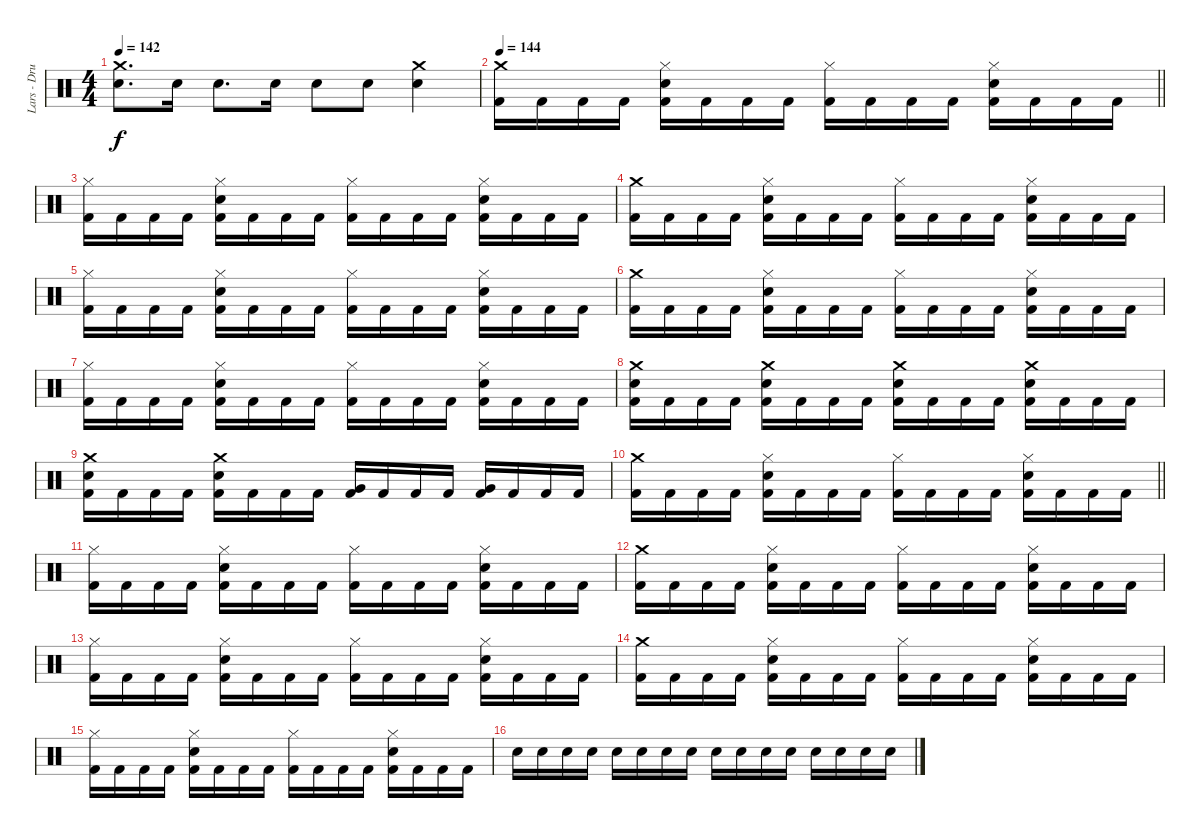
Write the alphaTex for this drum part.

\track ("Lars - Drums" "Lars - Dru") {instrument percussion}
\staff {score}
\articulation defaults
\ts (4 4)
\tempo 142
\clef neutral
\ks c
("Crash medium (hit)" "Snare (hit) 2").8{d dy f volume 15} "Snare (hit) 2".16 "Snare (hit) 2".8{d} "Snare (hit) 2".16 "Snare (hit) 2".8 "Snare (hit) 2".8 ("Crash medium (hit)" "Snare (hit) 2").4 |
\tempo 144
\barLineRight lightlight
("Crash medium (hit)" "Kick (hit) 2").16 "Kick (hit) 2".16 "Kick (hit) 2".16 "Kick (hit) 2".16 ("Hi-Hat (closed)" "Snare (hit) 2" "Kick (hit) 2").16 "Kick (hit) 2".16 "Kick (hit) 2".16 "Kick (hit) 2".16 ("Hi-Hat (closed)" "Kick (hit) 2").16 "Kick (hit) 2".16 "Kick (hit) 2".16 "Kick (hit) 2".16 ("Hi-Hat (closed)" "Snare (hit) 2" "Kick (hit) 2").16 "Kick (hit) 2".16 "Kick (hit) 2".16 "Kick (hit) 2".16 |
("Hi-Hat (closed)" "Kick (hit) 2").16 "Kick (hit) 2".16 "Kick (hit) 2".16 "Kick (hit) 2".16 ("Hi-Hat (closed)" "Snare (hit) 2" "Kick (hit) 2").16 "Kick (hit) 2".16 "Kick (hit) 2".16 "Kick (hit) 2".16 ("Hi-Hat (closed)" "Kick (hit) 2").16 "Kick (hit) 2".16 "Kick (hit) 2".16 "Kick (hit) 2".16 ("Hi-Hat (closed)" "Snare (hit) 2" "Kick (hit) 2").16 "Kick (hit) 2".16 "Kick (hit) 2".16 "Kick (hit) 2".16 |
("Crash medium (hit)" "Kick (hit) 2").16 "Kick (hit) 2".16 "Kick (hit) 2".16 "Kick (hit) 2".16 ("Hi-Hat (closed)" "Snare (hit) 2" "Kick (hit) 2").16 "Kick (hit) 2".16 "Kick (hit) 2".16 "Kick (hit) 2".16 ("Hi-Hat (closed)" "Kick (hit) 2").16 "Kick (hit) 2".16 "Kick (hit) 2".16 "Kick (hit) 2".16 ("Hi-Hat (closed)" "Snare (hit) 2" "Kick (hit) 2").16 "Kick (hit) 2".16 "Kick (hit) 2".16 "Kick (hit) 2".16 |
("Hi-Hat (closed)" "Kick (hit) 2").16 "Kick (hit) 2".16 "Kick (hit) 2".16 "Kick (hit) 2".16 ("Hi-Hat (closed)" "Snare (hit) 2" "Kick (hit) 2").16 "Kick (hit) 2".16 "Kick (hit) 2".16 "Kick (hit) 2".16 ("Hi-Hat (closed)" "Kick (hit) 2").16 "Kick (hit) 2".16 "Kick (hit) 2".16 "Kick (hit) 2".16 ("Hi-Hat (closed)" "Snare (hit) 2" "Kick (hit) 2").16 "Kick (hit) 2".16 "Kick (hit) 2".16 "Kick (hit) 2".16 |
("Crash medium (hit)" "Kick (hit) 2").16 "Kick (hit) 2".16 "Kick (hit) 2".16 "Kick (hit) 2".16 ("Hi-Hat (closed)" "Snare (hit) 2" "Kick (hit) 2").16 "Kick (hit) 2".16 "Kick (hit) 2".16 "Kick (hit) 2".16 ("Hi-Hat (closed)" "Kick (hit) 2").16 "Kick (hit) 2".16 "Kick (hit) 2".16 "Kick (hit) 2".16 ("Hi-Hat (closed)" "Snare (hit) 2" "Kick (hit) 2").16 "Kick (hit) 2".16 "Kick (hit) 2".16 "Kick (hit) 2".16 |
("Hi-Hat (closed)" "Kick (hit) 2").16 "Kick (hit) 2".16 "Kick (hit) 2".16 "Kick (hit) 2".16 ("Hi-Hat (closed)" "Snare (hit) 2" "Kick (hit) 2").16 "Kick (hit) 2".16 "Kick (hit) 2".16 "Kick (hit) 2".16 ("Hi-Hat (closed)" "Kick (hit) 2").16 "Kick (hit) 2".16 "Kick (hit) 2".16 "Kick (hit) 2".16 ("Hi-Hat (closed)" "Snare (hit) 2" "Kick (hit) 2").16 "Kick (hit) 2".16 "Kick (hit) 2".16 "Kick (hit) 2".16 |
("Crash medium (hit)" "Snare (hit) 2" "Kick (hit) 2").16 "Kick (hit) 2".16 "Kick (hit) 2".16 "Kick (hit) 2".16 ("Crash medium (hit)" "Snare (hit) 2" "Kick (hit) 2").16 "Kick (hit) 2".16 "Kick (hit) 2".16 "Kick (hit) 2".16 ("Crash medium (hit)" "Snare (hit) 2" "Kick (hit) 2").16 "Kick (hit) 2".16 "Kick (hit) 2".16 "Kick (hit) 2".16 ("Crash medium (hit)" "Snare (hit) 2" "Kick (hit) 2").16 "Kick (hit) 2".16 "Kick (hit) 2".16 "Kick (hit) 2".16 |
("Crash medium (hit)" "Snare (hit) 2" "Kick (hit) 2").16 "Kick (hit) 2".16 "Kick (hit) 2".16 "Kick (hit) 2".16 ("Crash medium (hit)" "Snare (hit) 2" "Kick (hit) 2").16 "Kick (hit) 2".16 "Kick (hit) 2".16 "Kick (hit) 2".16 ("Very Low Tom (hit)" "Kick (hit) 2").16 "Kick (hit) 2".16 "Kick (hit) 2".16 "Kick (hit) 2".16 ("Very Low Tom (hit)" "Kick (hit) 2").16 "Kick (hit) 2".16 "Kick (hit) 2".16 "Kick (hit) 2".16 |
\barLineRight lightlight
("Crash medium (hit)" "Kick (hit) 2").16 "Kick (hit) 2".16 "Kick (hit) 2".16 "Kick (hit) 2".16 ("Hi-Hat (closed)" "Snare (hit) 2" "Kick (hit) 2").16 "Kick (hit) 2".16 "Kick (hit) 2".16 "Kick (hit) 2".16 ("Hi-Hat (closed)" "Kick (hit) 2").16 "Kick (hit) 2".16 "Kick (hit) 2".16 "Kick (hit) 2".16 ("Hi-Hat (closed)" "Snare (hit) 2" "Kick (hit) 2").16 "Kick (hit) 2".16 "Kick (hit) 2".16 "Kick (hit) 2".16 |
("Hi-Hat (closed)" "Kick (hit) 2").16 "Kick (hit) 2".16 "Kick (hit) 2".16 "Kick (hit) 2".16 ("Hi-Hat (closed)" "Snare (hit) 2" "Kick (hit) 2").16 "Kick (hit) 2".16 "Kick (hit) 2".16 "Kick (hit) 2".16 ("Hi-Hat (closed)" "Kick (hit) 2").16 "Kick (hit) 2".16 "Kick (hit) 2".16 "Kick (hit) 2".16 ("Hi-Hat (closed)" "Snare (hit) 2" "Kick (hit) 2").16 "Kick (hit) 2".16 "Kick (hit) 2".16 "Kick (hit) 2".16 |
("Crash medium (hit)" "Kick (hit) 2").16 "Kick (hit) 2".16 "Kick (hit) 2".16 "Kick (hit) 2".16 ("Hi-Hat (closed)" "Snare (hit) 2" "Kick (hit) 2").16 "Kick (hit) 2".16 "Kick (hit) 2".16 "Kick (hit) 2".16 ("Hi-Hat (closed)" "Kick (hit) 2").16 "Kick (hit) 2".16 "Kick (hit) 2".16 "Kick (hit) 2".16 ("Hi-Hat (closed)" "Snare (hit) 2" "Kick (hit) 2").16 "Kick (hit) 2".16 "Kick (hit) 2".16 "Kick (hit) 2".16 |
("Hi-Hat (closed)" "Kick (hit) 2").16 "Kick (hit) 2".16 "Kick (hit) 2".16 "Kick (hit) 2".16 ("Hi-Hat (closed)" "Snare (hit) 2" "Kick (hit) 2").16 "Kick (hit) 2".16 "Kick (hit) 2".16 "Kick (hit) 2".16 ("Hi-Hat (closed)" "Kick (hit) 2").16 "Kick (hit) 2".16 "Kick (hit) 2".16 "Kick (hit) 2".16 ("Hi-Hat (closed)" "Snare (hit) 2" "Kick (hit) 2").16 "Kick (hit) 2".16 "Kick (hit) 2".16 "Kick (hit) 2".16 |
("Crash medium (hit)" "Kick (hit) 2").16 "Kick (hit) 2".16 "Kick (hit) 2".16 "Kick (hit) 2".16 ("Hi-Hat (closed)" "Snare (hit) 2" "Kick (hit) 2").16 "Kick (hit) 2".16 "Kick (hit) 2".16 "Kick (hit) 2".16 ("Hi-Hat (closed)" "Kick (hit) 2").16 "Kick (hit) 2".16 "Kick (hit) 2".16 "Kick (hit) 2".16 ("Hi-Hat (closed)" "Snare (hit) 2" "Kick (hit) 2").16 "Kick (hit) 2".16 "Kick (hit) 2".16 "Kick (hit) 2".16 |
("Hi-Hat (closed)" "Kick (hit) 2").16 "Kick (hit) 2".16 "Kick (hit) 2".16 "Kick (hit) 2".16 ("Hi-Hat (closed)" "Snare (hit) 2" "Kick (hit) 2").16 "Kick (hit) 2".16 "Kick (hit) 2".16 "Kick (hit) 2".16 ("Hi-Hat (closed)" "Kick (hit) 2").16 "Kick (hit) 2".16 "Kick (hit) 2".16 "Kick (hit) 2".16 ("Hi-Hat (closed)" "Snare (hit) 2" "Kick (hit) 2").16 "Kick (hit) 2".16 "Kick (hit) 2".16 "Kick (hit) 2".16 |
"Snare (hit) 2".16 "Snare (hit) 2".16 "Snare (hit) 2".16 "Snare (hit) 2".16 "Snare (hit) 2".16 "Snare (hit) 2".16 "Snare (hit) 2".16 "Snare (hit) 2".16 "Snare (hit) 2".16 "Snare (hit) 2".16 "Snare (hit) 2".16 "Snare (hit) 2".16 "Snare (hit) 2".16 "Snare (hit) 2".16 "Snare (hit) 2".16 "Snare (hit) 2".16
